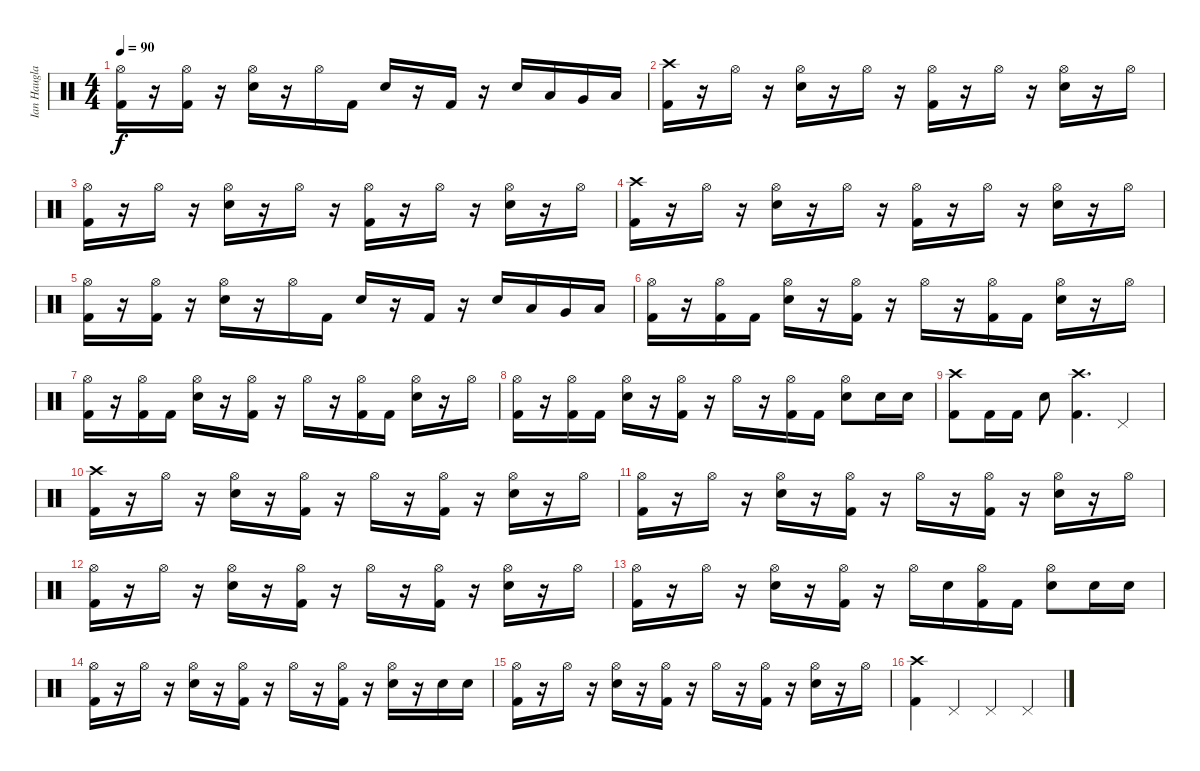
\track ("Ian Haugland" "Ian Haugla") {instrument percussion}
\staff {score}
\articulation defaults
\ts (4 4)
\tempo 90
\clef neutral
\ks c
("Hi-Hat (open)" "Kick (hit) 2").16{dy f} r.16 ("Hi-Hat (open)" "Kick (hit) 2").16 r.16 ("Hi-Hat (open)" "Electric Snare (hit)").16 r.16 "Hi-Hat (open)".16 "Kick (hit) 2".16 "Electric Snare (hit)".16 r.16 "Kick (hit) 2".16 r.16 "Electric Snare (hit)".16 "Low Tom (hit)".16 "Very Low Tom (hit)".16 "Low Floor Tom (hit)".16 |
("Crash high (hit)" "Kick (hit) 2").16 r.16 "Hi-Hat (open)".16 r.16 ("Hi-Hat (open)" "Electric Snare (hit)").16 r.16 "Hi-Hat (open)".16 r.16 ("Hi-Hat (open)" "Kick (hit) 2").16 r.16 "Hi-Hat (open)".16 r.16 ("Hi-Hat (open)" "Electric Snare (hit)").16 r.16 "Hi-Hat (open)".16 |
("Hi-Hat (open)" "Kick (hit) 2").16 r.16 "Hi-Hat (open)".16 r.16 ("Hi-Hat (open)" "Electric Snare (hit)").16 r.16 "Hi-Hat (open)".16 r.16 ("Hi-Hat (open)" "Kick (hit) 2").16 r.16 "Hi-Hat (open)".16 r.16 ("Hi-Hat (open)" "Electric Snare (hit)").16 r.16 "Hi-Hat (open)".16 |
("Crash high (hit)" "Kick (hit) 2").16 r.16 "Hi-Hat (open)".16 r.16 ("Hi-Hat (open)" "Electric Snare (hit)").16 r.16 "Hi-Hat (open)".16 r.16 ("Hi-Hat (open)" "Kick (hit) 2").16 r.16 "Hi-Hat (open)".16 r.16 ("Hi-Hat (open)" "Electric Snare (hit)").16 r.16 "Hi-Hat (open)".16 |
("Hi-Hat (open)" "Kick (hit) 2").16 r.16 ("Hi-Hat (open)" "Kick (hit) 2").16 r.16 ("Hi-Hat (open)" "Electric Snare (hit)").16 r.16 "Hi-Hat (open)".16 "Kick (hit) 2".16 "Electric Snare (hit)".16 r.16 "Kick (hit) 2".16 r.16 "Electric Snare (hit)".16 "Low Tom (hit)".16 "Very Low Tom (hit)".16 "Low Floor Tom (hit)".16 |
("Hi-Hat (open)" "Kick (hit) 2").16 r.16 ("Hi-Hat (open)" "Kick (hit) 2").16 "Kick (hit) 2".16 ("Hi-Hat (open)" "Electric Snare (hit)").16 r.16 ("Hi-Hat (open)" "Kick (hit) 2").16 r.16 "Hi-Hat (open)".16 r.16 ("Hi-Hat (open)" "Kick (hit) 2").16 "Kick (hit) 2".16 ("Hi-Hat (open)" "Electric Snare (hit)").16 r.16 "Hi-Hat (open)".16 |
("Hi-Hat (open)" "Kick (hit) 2").16 r.16 ("Hi-Hat (open)" "Kick (hit) 2").16 "Kick (hit) 2".16 ("Hi-Hat (open)" "Electric Snare (hit)").16 r.16 ("Hi-Hat (open)" "Kick (hit) 2").16 r.16 "Hi-Hat (open)".16 r.16 ("Hi-Hat (open)" "Kick (hit) 2").16 "Kick (hit) 2".16 ("Hi-Hat (open)" "Electric Snare (hit)").16 r.16 "Hi-Hat (open)".16 |
("Hi-Hat (open)" "Kick (hit) 2").16 r.16 ("Hi-Hat (open)" "Kick (hit) 2").16 "Kick (hit) 2".16 ("Hi-Hat (open)" "Electric Snare (hit)").16 r.16 ("Hi-Hat (open)" "Kick (hit) 2").16 r.16 "Hi-Hat (open)".16 r.16 ("Hi-Hat (open)" "Kick (hit) 2").16 "Kick (hit) 2".16 ("Hi-Hat (open)" "Electric Snare (hit)").8 "Electric Snare (hit)".16 "Electric Snare (hit)".16 |
("Crash high (hit)" "Kick (hit) 2").8 "Kick (hit) 2".16 "Kick (hit) 2".16 "Electric Snare (hit)".8 ("Crash high (hit)" "Kick (hit) 2").4{d} "Pedal Hi-Hat (hit)".4 |
("Crash high (hit)" "Kick (hit) 2").16 r.16 "Hi-Hat (open)".16 r.16 ("Hi-Hat (open)" "Electric Snare (hit)").16 r.16 ("Hi-Hat (open)" "Kick (hit) 2").16 r.16 "Hi-Hat (open)".16 r.16 ("Hi-Hat (open)" "Kick (hit) 2").16 r.16 ("Hi-Hat (open)" "Electric Snare (hit)").16 r.16 "Hi-Hat (open)".16 |
("Hi-Hat (open)" "Kick (hit) 2").16 r.16 "Hi-Hat (open)".16 r.16 ("Hi-Hat (open)" "Electric Snare (hit)").16 r.16 ("Hi-Hat (open)" "Kick (hit) 2").16 r.16 "Hi-Hat (open)".16 r.16 ("Hi-Hat (open)" "Kick (hit) 2").16 r.16 ("Hi-Hat (open)" "Electric Snare (hit)").16 r.16 "Hi-Hat (open)".16 |
("Hi-Hat (open)" "Kick (hit) 2").16 r.16 "Hi-Hat (open)".16 r.16 ("Hi-Hat (open)" "Electric Snare (hit)").16 r.16 ("Hi-Hat (open)" "Kick (hit) 2").16 r.16 "Hi-Hat (open)".16 r.16 ("Hi-Hat (open)" "Kick (hit) 2").16 r.16 ("Hi-Hat (open)" "Electric Snare (hit)").16 r.16 "Hi-Hat (open)".16 |
("Hi-Hat (open)" "Kick (hit) 2").16 r.16 "Hi-Hat (open)".16 r.16 ("Hi-Hat (open)" "Electric Snare (hit)").16 r.16 ("Hi-Hat (open)" "Kick (hit) 2").16 r.16 "Hi-Hat (open)".16 "Electric Snare (hit)".16 ("Hi-Hat (open)" "Kick (hit) 2").16 "Kick (hit) 2".16 ("Hi-Hat (open)" "Electric Snare (hit)").8 "Electric Snare (hit)".16 "Electric Snare (hit)".16 |
("Hi-Hat (open)" "Kick (hit) 2").16 r.16 "Hi-Hat (open)".16 r.16 ("Hi-Hat (open)" "Electric Snare (hit)").16 r.16 ("Hi-Hat (open)" "Kick (hit) 2").16 r.16 "Hi-Hat (open)".16 r.16 ("Hi-Hat (open)" "Kick (hit) 2").16 r.16 ("Hi-Hat (open)" "Electric Snare (hit)").16 r.16 "Electric Snare (hit)".16 "Electric Snare (hit)".16 |
("Hi-Hat (open)" "Kick (hit) 2").16 r.16 "Hi-Hat (open)".16 r.16 ("Hi-Hat (open)" "Electric Snare (hit)").16 r.16 ("Hi-Hat (open)" "Kick (hit) 2").16 r.16 "Hi-Hat (open)".16 r.16 ("Hi-Hat (open)" "Kick (hit) 2").16 r.16 ("Hi-Hat (open)" "Electric Snare (hit)").16 r.16 "Hi-Hat (open)".16 |
("Crash high (hit)" "Kick (hit) 2").4 "Pedal Hi-Hat (hit)".4 "Pedal Hi-Hat (hit)".4 "Pedal Hi-Hat (hit)".4
